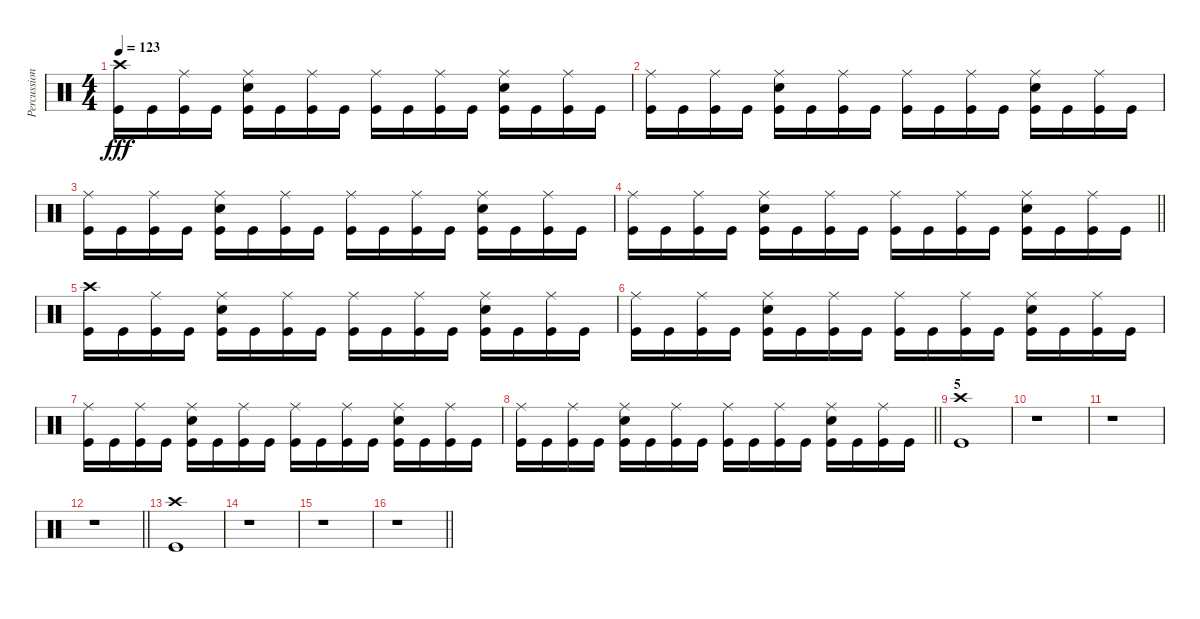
\track ("Percussion" "Percussion") {instrument percussion}
\staff {score}
\articulation defaults
\ts (4 4)
\section ("" "")
\tempo 123
\clef neutral
\ks c
("Crash high (hit)" "Kick (hit)").16{dy fff} "Kick (hit)".16 ("Ride (middle)" "Kick (hit)").16 "Kick (hit)".16 ("Ride (middle)" "Snare (hit) 2" "Kick (hit)").16 "Kick (hit)".16 ("Ride (middle)" "Kick (hit)").16 "Kick (hit)".16 ("Ride (middle)" "Kick (hit)").16 "Kick (hit)".16 ("Ride (middle)" "Kick (hit)").16 "Kick (hit)".16 ("Ride (middle)" "Snare (hit) 2" "Kick (hit)").16 "Kick (hit)".16 ("Ride (middle)" "Kick (hit)").16 "Kick (hit)".16 |
("Ride (middle)" "Kick (hit)").16 "Kick (hit)".16 ("Ride (middle)" "Kick (hit)").16 "Kick (hit)".16 ("Ride (middle)" "Snare (hit) 2" "Kick (hit)").16 "Kick (hit)".16 ("Ride (middle)" "Kick (hit)").16 "Kick (hit)".16 ("Ride (middle)" "Kick (hit)").16 "Kick (hit)".16 ("Ride (middle)" "Kick (hit)").16 "Kick (hit)".16 ("Ride (middle)" "Snare (hit) 2" "Kick (hit)").16 "Kick (hit)".16 ("Ride (middle)" "Kick (hit)").16 "Kick (hit)".16 |
("Ride (middle)" "Kick (hit)").16 "Kick (hit)".16 ("Ride (middle)" "Kick (hit)").16 "Kick (hit)".16 ("Ride (middle)" "Snare (hit) 2" "Kick (hit)").16 "Kick (hit)".16 ("Ride (middle)" "Kick (hit)").16 "Kick (hit)".16 ("Ride (middle)" "Kick (hit)").16 "Kick (hit)".16 ("Ride (middle)" "Kick (hit)").16 "Kick (hit)".16 ("Ride (middle)" "Snare (hit) 2" "Kick (hit)").16 "Kick (hit)".16 ("Ride (middle)" "Kick (hit)").16 "Kick (hit)".16 |
\barLineRight lightlight
("Ride (middle)" "Kick (hit)").16 "Kick (hit)".16 ("Ride (middle)" "Kick (hit)").16 "Kick (hit)".16 ("Ride (middle)" "Snare (hit) 2" "Kick (hit)").16 "Kick (hit)".16 ("Ride (middle)" "Kick (hit)").16 "Kick (hit)".16 ("Ride (middle)" "Kick (hit)").16 "Kick (hit)".16 ("Ride (middle)" "Kick (hit)").16 "Kick (hit)".16 ("Ride (middle)" "Snare (hit) 2" "Kick (hit)").16 "Kick (hit)".16 ("Ride (middle)" "Kick (hit)").16 "Kick (hit)".16 |
\section ("" "")
("Crash high (hit)" "Kick (hit)").16 "Kick (hit)".16 ("Ride (middle)" "Kick (hit)").16 "Kick (hit)".16 ("Ride (middle)" "Snare (hit) 2" "Kick (hit)").16 "Kick (hit)".16 ("Ride (middle)" "Kick (hit)").16 "Kick (hit)".16 ("Ride (middle)" "Kick (hit)").16 "Kick (hit)".16 ("Ride (middle)" "Kick (hit)").16 "Kick (hit)".16 ("Ride (middle)" "Snare (hit) 2" "Kick (hit)").16 "Kick (hit)".16 ("Ride (middle)" "Kick (hit)").16 "Kick (hit)".16 |
("Ride (middle)" "Kick (hit)").16 "Kick (hit)".16 ("Ride (middle)" "Kick (hit)").16 "Kick (hit)".16 ("Ride (middle)" "Snare (hit) 2" "Kick (hit)").16 "Kick (hit)".16 ("Ride (middle)" "Kick (hit)").16 "Kick (hit)".16 ("Ride (middle)" "Kick (hit)").16 "Kick (hit)".16 ("Ride (middle)" "Kick (hit)").16 "Kick (hit)".16 ("Ride (middle)" "Snare (hit) 2" "Kick (hit)").16 "Kick (hit)".16 ("Ride (middle)" "Kick (hit)").16 "Kick (hit)".16 |
("Ride (middle)" "Kick (hit)").16 "Kick (hit)".16 ("Ride (middle)" "Kick (hit)").16 "Kick (hit)".16 ("Ride (middle)" "Snare (hit) 2" "Kick (hit)").16 "Kick (hit)".16 ("Ride (middle)" "Kick (hit)").16 "Kick (hit)".16 ("Ride (middle)" "Kick (hit)").16 "Kick (hit)".16 ("Ride (middle)" "Kick (hit)").16 "Kick (hit)".16 ("Ride (middle)" "Snare (hit) 2" "Kick (hit)").16 "Kick (hit)".16 ("Ride (middle)" "Kick (hit)").16 "Kick (hit)".16 |
\barLineRight lightlight
("Ride (middle)" "Kick (hit)").16 "Kick (hit)".16 ("Ride (middle)" "Kick (hit)").16 "Kick (hit)".16 ("Ride (middle)" "Snare (hit) 2" "Kick (hit)").16 "Kick (hit)".16 ("Ride (middle)" "Kick (hit)").16 "Kick (hit)".16 ("Ride (middle)" "Kick (hit)").16 "Kick (hit)".16 ("Ride (middle)" "Kick (hit)").16 "Kick (hit)".16 ("Ride (middle)" "Snare (hit) 2" "Kick (hit)").16 "Kick (hit)".16 ("Ride (middle)" "Kick (hit)").16 "Kick (hit)".16 |
\section ("" "5")
("Crash high (hit)" "Kick (hit)").1 |
r.1 |
r.1 |
\barLineRight lightlight
r.1 |
\section ("" "")
("Crash high (hit)" "Kick (hit)").1 |
r.1 |
r.1 |
\barLineRight lightlight
r.1
